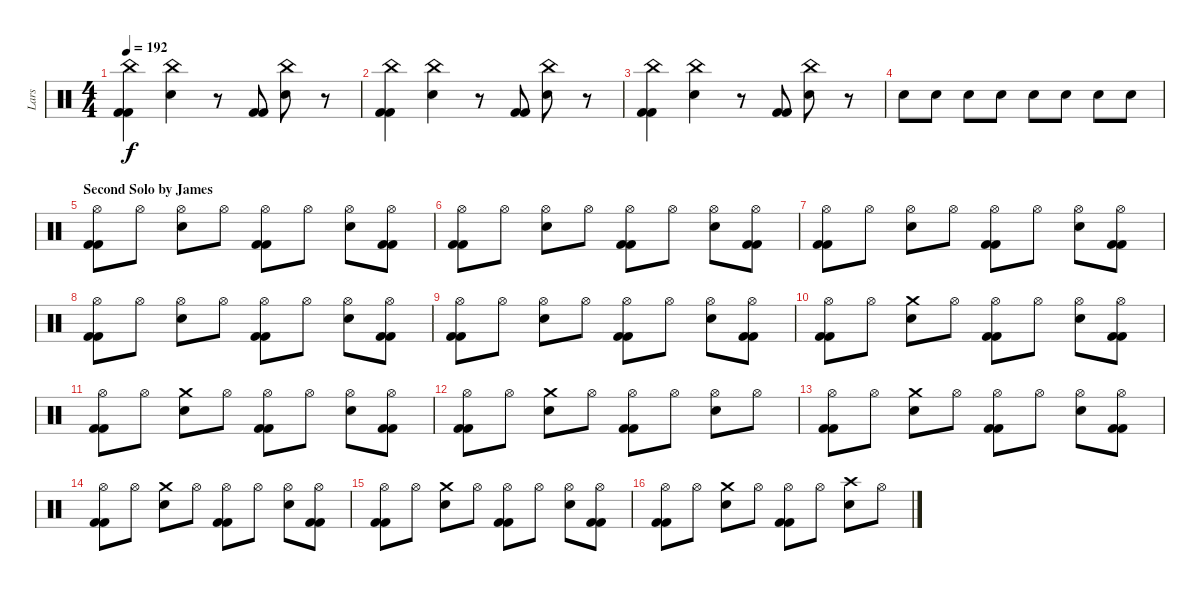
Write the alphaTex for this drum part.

\track ("Lars" "Lars") {instrument percussion}
\staff {score}
\articulation defaults
\ts (4 4)
\tempo 192
\clef neutral
\ks c
("China (hit)" "Kick (hit) 2" "Kick (hit) 2").4{dy f} ("Electric Snare (hit)" "China (hit)").4 r.8 ("Kick (hit) 2" "Kick (hit) 2").8 ("Electric Snare (hit)" "China (hit)").8 r.8 |
("China (hit)" "Kick (hit) 2" "Kick (hit) 2").4 ("Electric Snare (hit)" "China (hit)").4 r.8 ("Kick (hit) 2" "Kick (hit) 2").8 ("Electric Snare (hit)" "China (hit)").8 r.8 |
("China (hit)" "Kick (hit) 2" "Kick (hit) 2").4 ("Electric Snare (hit)" "China (hit)").4 r.8 ("Kick (hit) 2" "Kick (hit) 2").8 ("Electric Snare (hit)" "China (hit)").8 r.8 |
"Electric Snare (hit)".8{volume 3} "Electric Snare (hit)".8{volume 6} "Electric Snare (hit)".8{volume 9} "Electric Snare (hit)".8{volume 12} "Electric Snare (hit)".8 "Electric Snare (hit)".8 "Electric Snare (hit)".8 "Electric Snare (hit)".8 |
\section ("" "Second Solo by James")
("Hi-Hat (open)" "Kick (hit) 2" "Kick (hit) 2").8 "Hi-Hat (open)".8 ("Electric Snare (hit)" "Hi-Hat (open)").8 "Hi-Hat (open)".8 ("Hi-Hat (open)" "Kick (hit) 2" "Kick (hit) 2").8 "Hi-Hat (open)".8 ("Electric Snare (hit)" "Hi-Hat (open)").8 ("Hi-Hat (open)" "Kick (hit) 2" "Kick (hit) 2").8 |
("Hi-Hat (open)" "Kick (hit) 2" "Kick (hit) 2").8 "Hi-Hat (open)".8 ("Electric Snare (hit)" "Hi-Hat (open)").8 "Hi-Hat (open)".8 ("Hi-Hat (open)" "Kick (hit) 2" "Kick (hit) 2").8 "Hi-Hat (open)".8 ("Electric Snare (hit)" "Hi-Hat (open)").8 ("Hi-Hat (open)" "Kick (hit) 2" "Kick (hit) 2").8 |
("Hi-Hat (open)" "Kick (hit) 2" "Kick (hit) 2").8 "Hi-Hat (open)".8 ("Electric Snare (hit)" "Hi-Hat (open)").8 "Hi-Hat (open)".8 ("Hi-Hat (open)" "Kick (hit) 2" "Kick (hit) 2").8 "Hi-Hat (open)".8 ("Electric Snare (hit)" "Hi-Hat (open)").8 ("Hi-Hat (open)" "Kick (hit) 2" "Kick (hit) 2").8 |
("Hi-Hat (open)" "Kick (hit) 2" "Kick (hit) 2").8 "Hi-Hat (open)".8 ("Electric Snare (hit)" "Hi-Hat (open)").8 "Hi-Hat (open)".8 ("Hi-Hat (open)" "Kick (hit) 2" "Kick (hit) 2").8 "Hi-Hat (open)".8 ("Electric Snare (hit)" "Hi-Hat (open)").8 ("Hi-Hat (open)" "Kick (hit) 2" "Kick (hit) 2").8 |
("Hi-Hat (open)" "Kick (hit) 2" "Kick (hit) 2").8 "Hi-Hat (open)".8 ("Electric Snare (hit)" "Hi-Hat (open)").8 "Hi-Hat (open)".8 ("Hi-Hat (open)" "Kick (hit) 2" "Kick (hit) 2").8 "Hi-Hat (open)".8 ("Electric Snare (hit)" "Hi-Hat (open)").8 ("Hi-Hat (open)" "Kick (hit) 2" "Kick (hit) 2").8 |
("Hi-Hat (open)" "Kick (hit) 2" "Kick (hit) 2").8 "Hi-Hat (open)".8 ("Electric Snare (hit)" "Crash medium (hit)").8 "Hi-Hat (open)".8 ("Hi-Hat (open)" "Kick (hit) 2" "Kick (hit) 2").8 "Hi-Hat (open)".8 ("Electric Snare (hit)" "Hi-Hat (open)").8 ("Hi-Hat (open)" "Kick (hit) 2" "Kick (hit) 2").8 |
("Hi-Hat (open)" "Kick (hit) 2" "Kick (hit) 2").8 "Hi-Hat (open)".8 ("Electric Snare (hit)" "Crash medium (hit)").8 "Hi-Hat (open)".8 ("Hi-Hat (open)" "Kick (hit) 2" "Kick (hit) 2").8 "Hi-Hat (open)".8 ("Electric Snare (hit)" "Hi-Hat (open)").8 ("Hi-Hat (open)" "Kick (hit) 2" "Kick (hit) 2").8 |
("Hi-Hat (open)" "Kick (hit) 2" "Kick (hit) 2").8 "Hi-Hat (open)".8 ("Electric Snare (hit)" "Crash medium (hit)").8 "Hi-Hat (open)".8 ("Hi-Hat (open)" "Kick (hit) 2" "Kick (hit) 2").8 "Hi-Hat (open)".8 ("Electric Snare (hit)" "Hi-Hat (open)").8 "Hi-Hat (open)".8 |
("Hi-Hat (open)" "Kick (hit) 2" "Kick (hit) 2").8 "Hi-Hat (open)".8 ("Electric Snare (hit)" "Crash medium (hit)").8 "Hi-Hat (open)".8 ("Hi-Hat (open)" "Kick (hit) 2" "Kick (hit) 2").8 "Hi-Hat (open)".8 ("Electric Snare (hit)" "Hi-Hat (open)").8 ("Hi-Hat (open)" "Kick (hit) 2" "Kick (hit) 2").8 |
("Hi-Hat (open)" "Kick (hit) 2" "Kick (hit) 2").8 "Hi-Hat (open)".8 ("Electric Snare (hit)" "Crash medium (hit)").8 "Hi-Hat (open)".8 ("Hi-Hat (open)" "Kick (hit) 2" "Kick (hit) 2").8 "Hi-Hat (open)".8 ("Electric Snare (hit)" "Hi-Hat (open)").8 ("Hi-Hat (open)" "Kick (hit) 2" "Kick (hit) 2").8 |
("Hi-Hat (open)" "Kick (hit) 2" "Kick (hit) 2").8 "Hi-Hat (open)".8 ("Electric Snare (hit)" "Crash medium (hit)").8 "Hi-Hat (open)".8 ("Hi-Hat (open)" "Kick (hit) 2" "Kick (hit) 2").8 "Hi-Hat (open)".8 ("Electric Snare (hit)" "Hi-Hat (open)").8 ("Hi-Hat (open)" "Kick (hit) 2" "Kick (hit) 2").8 |
("Hi-Hat (open)" "Kick (hit) 2" "Kick (hit) 2").8 "Hi-Hat (open)".8 ("Electric Snare (hit)" "Crash medium (hit)").8 "Hi-Hat (open)".8 ("Hi-Hat (open)" "Kick (hit) 2" "Kick (hit) 2").8 "Hi-Hat (open)".8 ("Electric Snare (hit)" "Crash high (hit)").8 "Hi-Hat (open)".8
